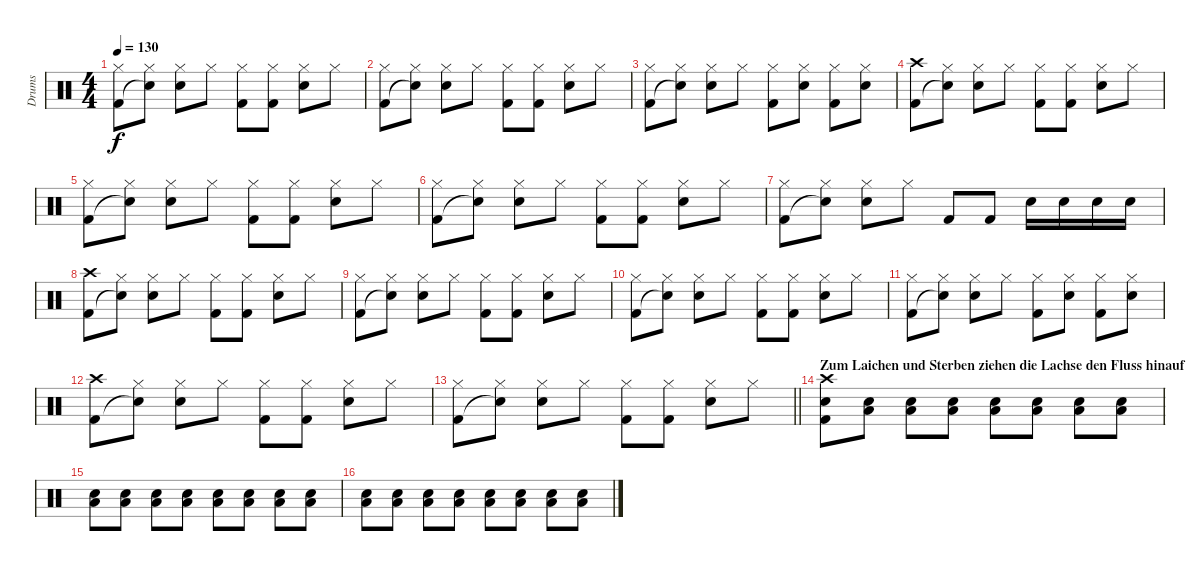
\track ("Drums" "Drums") {instrument percussion}
\staff {score}
\articulation defaults
\ts (4 4)
\tempo 130
\clef neutral
\ks c
("Hi-Hat (closed)" "Kick (hit) 2").8{dy f} ("Hi-Hat (closed)" "Snare (hit)"{t}).8 ("Hi-Hat (closed)" "Snare (hit) 2").8 "Hi-Hat (closed)".8 ("Hi-Hat (closed)" "Kick (hit) 2").8 ("Hi-Hat (closed)" "Kick (hit) 2").8 ("Hi-Hat (closed)" "Snare (hit) 2").8 "Hi-Hat (closed)".8 |
("Hi-Hat (closed)" "Kick (hit) 2").8 ("Hi-Hat (closed)" "Snare (hit)"{t}).8 ("Hi-Hat (closed)" "Snare (hit) 2").8 "Hi-Hat (closed)".8 ("Hi-Hat (closed)" "Kick (hit) 2").8 ("Hi-Hat (closed)" "Kick (hit) 2").8 ("Hi-Hat (closed)" "Snare (hit) 2").8 "Hi-Hat (closed)".8 |
("Hi-Hat (closed)" "Kick (hit) 2").8 ("Hi-Hat (closed)" "Snare (hit)"{t}).8 ("Hi-Hat (closed)" "Snare (hit) 2").8 "Hi-Hat (closed)".8 ("Hi-Hat (closed)" "Kick (hit) 2").8 ("Hi-Hat (closed)" "Snare (hit) 2").8 ("Hi-Hat (closed)" "Kick (hit) 2").8 ("Hi-Hat (closed)" "Snare (hit) 2").8 |
("Crash high (hit)" "Kick (hit) 2").8 ("Hi-Hat (closed)" "Snare (hit)"{t}).8 ("Hi-Hat (closed)" "Snare (hit) 2").8 "Hi-Hat (closed)".8 ("Hi-Hat (closed)" "Kick (hit) 2").8 ("Hi-Hat (closed)" "Kick (hit) 2").8 ("Hi-Hat (closed)" "Snare (hit) 2").8 "Hi-Hat (closed)".8 |
("Hi-Hat (closed)" "Kick (hit) 2").8 ("Hi-Hat (closed)" "Snare (hit)"{t}).8 ("Hi-Hat (closed)" "Snare (hit) 2").8 "Hi-Hat (closed)".8 ("Hi-Hat (closed)" "Kick (hit) 2").8 ("Hi-Hat (closed)" "Kick (hit) 2").8 ("Hi-Hat (closed)" "Snare (hit) 2").8 "Hi-Hat (closed)".8 |
("Hi-Hat (closed)" "Kick (hit) 2").8 ("Hi-Hat (closed)" "Snare (hit)"{t}).8 ("Hi-Hat (closed)" "Snare (hit) 2").8 "Hi-Hat (closed)".8 ("Hi-Hat (closed)" "Kick (hit) 2").8 ("Hi-Hat (closed)" "Kick (hit) 2").8 ("Hi-Hat (closed)" "Snare (hit) 2").8 "Hi-Hat (closed)".8 |
("Hi-Hat (closed)" "Kick (hit) 2").8 ("Hi-Hat (closed)" "Snare (hit)"{t}).8 ("Hi-Hat (closed)" "Snare (hit) 2").8 "Hi-Hat (closed)".8 "Kick (hit) 2".8 "Kick (hit) 2".8 "Snare (hit) 2".16 "Snare (hit) 2".16 "Snare (hit) 2".16 "Snare (hit) 2".16 |
("Crash high (hit)" "Kick (hit) 2").8 ("Hi-Hat (closed)" "Snare (hit)"{t}).8 ("Hi-Hat (closed)" "Snare (hit) 2").8 "Hi-Hat (closed)".8 ("Hi-Hat (closed)" "Kick (hit) 2").8 ("Hi-Hat (closed)" "Kick (hit) 2").8 ("Hi-Hat (closed)" "Snare (hit) 2").8 "Hi-Hat (closed)".8 |
("Hi-Hat (closed)" "Kick (hit) 2").8 ("Hi-Hat (closed)" "Snare (hit)"{t}).8 ("Hi-Hat (closed)" "Snare (hit) 2").8 "Hi-Hat (closed)".8 ("Hi-Hat (closed)" "Kick (hit) 2").8 ("Hi-Hat (closed)" "Kick (hit) 2").8 ("Hi-Hat (closed)" "Snare (hit) 2").8 "Hi-Hat (closed)".8 |
("Hi-Hat (closed)" "Kick (hit) 2").8 ("Hi-Hat (closed)" "Snare (hit)"{t}).8 ("Hi-Hat (closed)" "Snare (hit) 2").8 "Hi-Hat (closed)".8 ("Hi-Hat (closed)" "Kick (hit) 2").8 ("Hi-Hat (closed)" "Kick (hit) 2").8 ("Hi-Hat (closed)" "Snare (hit) 2").8 "Hi-Hat (closed)".8 |
("Hi-Hat (closed)" "Kick (hit) 2").8 ("Hi-Hat (closed)" "Snare (hit)"{t}).8 ("Hi-Hat (closed)" "Snare (hit) 2").8 "Hi-Hat (closed)".8 ("Hi-Hat (closed)" "Kick (hit) 2").8 ("Hi-Hat (closed)" "Snare (hit) 2").8 ("Hi-Hat (closed)" "Kick (hit) 2").8 ("Hi-Hat (closed)" "Snare (hit) 2").8 |
("Crash high (hit)" "Kick (hit) 2").8 ("Hi-Hat (closed)" "Snare (hit)"{t}).8 ("Hi-Hat (closed)" "Snare (hit) 2").8 "Hi-Hat (closed)".8 ("Hi-Hat (closed)" "Kick (hit) 2").8 ("Hi-Hat (closed)" "Kick (hit) 2").8 ("Hi-Hat (closed)" "Snare (hit) 2").8 "Hi-Hat (closed)".8 |
\barLineRight lightlight
("Hi-Hat (closed)" "Kick (hit) 2").8 ("Hi-Hat (closed)" "Snare (hit)"{t}).8 ("Hi-Hat (closed)" "Snare (hit) 2").8 "Hi-Hat (closed)".8 ("Hi-Hat (closed)" "Kick (hit) 2").8 ("Hi-Hat (closed)" "Kick (hit) 2").8 ("Hi-Hat (closed)" "Snare (hit) 2").8 "Hi-Hat (closed)".8 |
\section ("" "Zum Laichen und Sterben ziehen die Lachse den Fluss hinauf")
("Crash high (hit)" "Snare (hit) 2" "Kick (hit) 2").8 ("Snare (hit) 2" "Low Floor Tom (hit)").8 ("Snare (hit) 2" "Low Floor Tom (hit)").8 ("Snare (hit) 2" "Low Floor Tom (hit)").8 ("Snare (hit) 2" "Low Floor Tom (hit)").8 ("Snare (hit) 2" "Low Floor Tom (hit)").8 ("Snare (hit) 2" "Low Floor Tom (hit)").8 ("Snare (hit) 2" "Low Floor Tom (hit)").8 |
("Snare (hit) 2" "Low Floor Tom (hit)").8 ("Snare (hit) 2" "Low Floor Tom (hit)").8 ("Snare (hit) 2" "Low Floor Tom (hit)").8 ("Snare (hit) 2" "Low Floor Tom (hit)").8 ("Snare (hit) 2" "Low Floor Tom (hit)").8 ("Snare (hit) 2" "Low Floor Tom (hit)").8 ("Snare (hit) 2" "Low Floor Tom (hit)").8 ("Snare (hit) 2" "Low Floor Tom (hit)").8 |
("Snare (hit) 2" "Low Floor Tom (hit)").8 ("Snare (hit) 2" "Low Floor Tom (hit)").8 ("Snare (hit) 2" "Low Floor Tom (hit)").8 ("Snare (hit) 2" "Low Floor Tom (hit)").8 ("Snare (hit) 2" "Low Floor Tom (hit)").8 ("Snare (hit) 2" "Low Floor Tom (hit)").8 ("Snare (hit) 2" "Low Floor Tom (hit)").8 ("Snare (hit) 2" "Low Floor Tom (hit)").8
